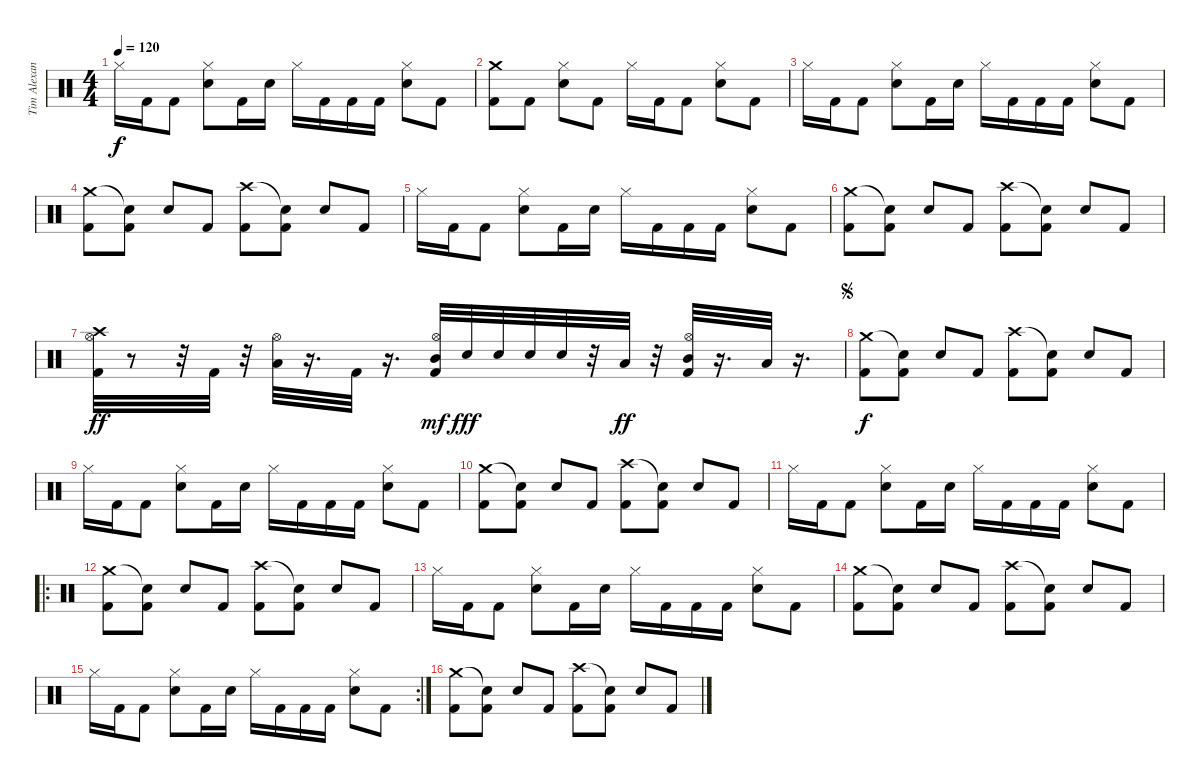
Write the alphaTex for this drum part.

\track ("Tim Alexander (Percussion)" "Tim Alexan") {instrument percussion}
\staff {score}
\articulation defaults
\ts (4 4)
\tempo 120
\clef neutral
\ks c "Hi-Hat (closed)".16{dy f} "Kick (hit) 2".16 "Kick (hit) 2".8
("Hi-Hat (closed)" "Electric Snare (hit)").8 "Kick (hit) 2".16 "Electric Snare (hit)".16 "Hi-Hat (closed)".16 "Kick (hit) 2".16 "Kick (hit) 2".16 "Kick (hit) 2".16 ("Hi-Hat (closed)" "Electric Snare (hit)").8 "Kick (hit) 2".8 |
("Crash medium (hit)" "Kick (hit) 2").8 "Kick (hit) 2".8 ("Hi-Hat (closed)" "Electric Snare (hit)").8 "Kick (hit) 2".8 "Hi-Hat (closed)".16 "Kick (hit) 2".16 "Kick (hit) 2".8 ("Hi-Hat (closed)" "Electric Snare (hit)").8 "Kick (hit) 2".8 |
"Hi-Hat (closed)".16 "Kick (hit) 2".16 "Kick (hit) 2".8 ("Hi-Hat (closed)" "Electric Snare (hit)").8 "Kick (hit) 2".16 "Electric Snare (hit)".16 "Hi-Hat (closed)".16 "Kick (hit) 2".16 "Kick (hit) 2".16 "Kick (hit) 2".16 ("Hi-Hat (closed)" "Electric Snare (hit)").8 "Kick (hit) 2".8 |
("Crash medium (hit)" "Kick (hit) 2").8 ("Snare (hit)"{t} "Kick (hit) 2").8 "Electric Snare (hit)".8 "Kick (hit) 2".8 ("Crash high (hit)" "Kick (hit) 2").8 ("Snare (hit)"{t} "Kick (hit) 2").8 "Electric Snare (hit)".8 "Kick (hit) 2".8 |
"Hi-Hat (closed)".16 "Kick (hit) 2".16 "Kick (hit) 2".8 ("Hi-Hat (closed)" "Electric Snare (hit)").8 "Kick (hit) 2".16 "Electric Snare (hit)".16 "Hi-Hat (closed)".16 "Kick (hit) 2".16 "Kick (hit) 2".16 "Kick (hit) 2".16 ("Hi-Hat (closed)" "Electric Snare (hit)").8 "Kick (hit) 2".8 |
("Crash medium (hit)" "Kick (hit) 2").8 ("Snare (hit)"{t} "Kick (hit) 2").8 "Electric Snare (hit)".8 "Kick (hit) 2".8 ("Crash high (hit)" "Kick (hit) 2").8 ("Snare (hit)"{t} "Kick (hit) 2").8 "Electric Snare (hit)".8 "Kick (hit) 2".8 |
("Crash high (hit)" "Hi-Hat (open)" "Kick (hit) 2").32{dy ff} r.8 r.32 "Kick (hit) 2".32 r.32 ("Hi-Hat (open)" "Low Tom (hit)").32 r.16{d} "Kick (hit) 2".32 r.16{d} ("Kick (hit) 2" "Hi-Hat (open)" "Mid Tom (hit)").32{dy mf} "Electric Snare (hit)".32{dy fff} "Electric Snare (hit)".32 "Electric Snare (hit)".32 "Electric Snare (hit)".32 r.32 "Low Tom (hit)".32{dy ff} r.32 ("Kick (hit) 2" "Hi-Hat (open)" "Mid Tom (hit)").32 r.16{d} "Low Tom (hit)".32 r.16{d} |
\jump segno
("Crash medium (hit)" "Kick (hit) 2").8{dy f} ("Snare (hit)"{t} "Kick (hit) 2").8 "Electric Snare (hit)".8 "Kick (hit) 2".8 ("Crash high (hit)" "Kick (hit) 2").8 ("Snare (hit)"{t} "Kick (hit) 2").8 "Electric Snare (hit)".8 "Kick (hit) 2".8 |
"Hi-Hat (closed)".16 "Kick (hit) 2".16 "Kick (hit) 2".8 ("Hi-Hat (closed)" "Electric Snare (hit)").8 "Kick (hit) 2".16 "Electric Snare (hit)".16 "Hi-Hat (closed)".16 "Kick (hit) 2".16 "Kick (hit) 2".16 "Kick (hit) 2".16 ("Hi-Hat (closed)" "Electric Snare (hit)").8 "Kick (hit) 2".8 |
("Crash medium (hit)" "Kick (hit) 2").8 ("Snare (hit)"{t} "Kick (hit) 2").8 "Electric Snare (hit)".8 "Kick (hit) 2".8 ("Crash high (hit)" "Kick (hit) 2").8 ("Snare (hit)"{t} "Kick (hit) 2").8 "Electric Snare (hit)".8 "Kick (hit) 2".8 |
"Hi-Hat (closed)".16 "Kick (hit) 2".16 "Kick (hit) 2".8 ("Hi-Hat (closed)" "Electric Snare (hit)").8 "Kick (hit) 2".16 "Electric Snare (hit)".16 "Hi-Hat (closed)".16 "Kick (hit) 2".16 "Kick (hit) 2".16 "Kick (hit) 2".16 ("Hi-Hat (closed)" "Electric Snare (hit)").8 "Kick (hit) 2".8 |
\ro
("Crash medium (hit)" "Kick (hit) 2").8 ("Snare (hit)"{t} "Kick (hit) 2").8 "Electric Snare (hit)".8 "Kick (hit) 2".8 ("Crash high (hit)" "Kick (hit) 2").8 ("Snare (hit)"{t} "Kick (hit) 2").8 "Electric Snare (hit)".8 "Kick (hit) 2".8 |
"Hi-Hat (closed)".16 "Kick (hit) 2".16 "Kick (hit) 2".8 ("Hi-Hat (closed)" "Electric Snare (hit)").8 "Kick (hit) 2".16 "Electric Snare (hit)".16 "Hi-Hat (closed)".16 "Kick (hit) 2".16 "Kick (hit) 2".16 "Kick (hit) 2".16 ("Hi-Hat (closed)" "Electric Snare (hit)").8 "Kick (hit) 2".8 |
("Crash medium (hit)" "Kick (hit) 2").8 ("Snare (hit)"{t} "Kick (hit) 2").8 "Electric Snare (hit)".8 "Kick (hit) 2".8 ("Crash high (hit)" "Kick (hit) 2").8 ("Snare (hit)"{t} "Kick (hit) 2").8 "Electric Snare (hit)".8 "Kick (hit) 2".8 |
\rc 2 "Hi-Hat (closed)".16 "Kick (hit) 2".16 "Kick (hit) 2".8
("Hi-Hat (closed)" "Electric Snare (hit)").8 "Kick (hit) 2".16 "Electric Snare (hit)".16 "Hi-Hat (closed)".16 "Kick (hit) 2".16 "Kick (hit) 2".16 "Kick (hit) 2".16 ("Hi-Hat (closed)" "Electric Snare (hit)").8 "Kick (hit) 2".8 |
("Crash medium (hit)" "Kick (hit) 2").8 ("Snare (hit)"{t} "Kick (hit) 2").8 "Electric Snare (hit)".8 "Kick (hit) 2".8 ("Crash high (hit)" "Kick (hit) 2").8 ("Snare (hit)"{t} "Kick (hit) 2").8 "Electric Snare (hit)".8 "Kick (hit) 2".8
